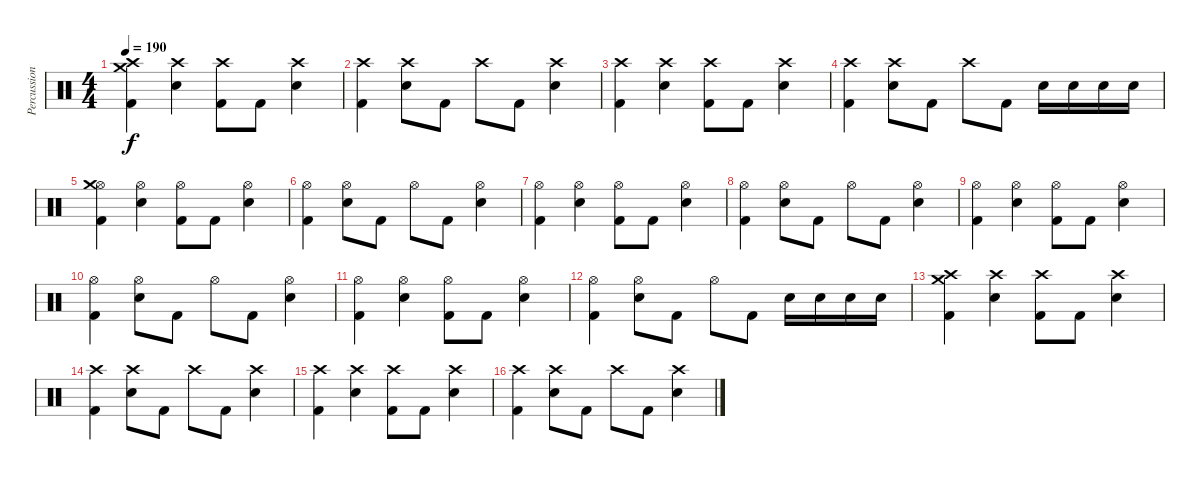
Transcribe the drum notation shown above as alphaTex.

\track ("Percussioni" "Percussion") {instrument percussion}
\staff {score}
\articulation defaults
\ts (4 4)
\tempo 190
\clef neutral
\ks c
("Crash high (hit)" "Kick (hit) 2" "Crash medium (hit)").4{dy f} ("Crash high (hit)" "Snare (hit) 2").4 ("Crash high (hit)" "Kick (hit) 2").8 "Kick (hit) 2".8 ("Crash high (hit)" "Snare (hit) 2").4 |
("Crash high (hit)" "Kick (hit) 2").4 ("Crash high (hit)" "Snare (hit) 2").8 "Kick (hit) 2".8 "Crash high (hit)".8 "Kick (hit) 2".8 ("Crash high (hit)" "Snare (hit) 2").4 |
("Crash high (hit)" "Kick (hit) 2").4 ("Crash high (hit)" "Snare (hit) 2").4 ("Crash high (hit)" "Kick (hit) 2").8 "Kick (hit) 2".8 ("Crash high (hit)" "Snare (hit) 2").4 |
("Crash high (hit)" "Kick (hit) 2").4 ("Crash high (hit)" "Snare (hit) 2").8 "Kick (hit) 2".8 "Crash high (hit)".8 "Kick (hit) 2".8 "Snare (hit) 2".16 "Snare (hit) 2".16 "Snare (hit) 2".16 "Snare (hit) 2".16 |
("Hi-Hat (open)" "Kick (hit) 2" "Crash medium (hit)").4 ("Hi-Hat (open)" "Snare (hit) 2").4 ("Hi-Hat (open)" "Kick (hit) 2").8 "Kick (hit) 2".8 ("Hi-Hat (open)" "Snare (hit) 2").4 |
("Hi-Hat (open)" "Kick (hit) 2").4 ("Hi-Hat (open)" "Snare (hit) 2").8 "Kick (hit) 2".8 "Hi-Hat (open)".8 "Kick (hit) 2".8 ("Hi-Hat (open)" "Snare (hit) 2").4 |
("Hi-Hat (open)" "Kick (hit) 2").4 ("Hi-Hat (open)" "Snare (hit) 2").4 ("Hi-Hat (open)" "Kick (hit) 2").8 "Kick (hit) 2".8 ("Hi-Hat (open)" "Snare (hit) 2").4 |
("Hi-Hat (open)" "Kick (hit) 2").4 ("Hi-Hat (open)" "Snare (hit) 2").8 "Kick (hit) 2".8 "Hi-Hat (open)".8 "Kick (hit) 2".8 ("Hi-Hat (open)" "Snare (hit) 2").4 |
("Hi-Hat (open)" "Kick (hit) 2").4 ("Hi-Hat (open)" "Snare (hit) 2").4 ("Hi-Hat (open)" "Kick (hit) 2").8 "Kick (hit) 2".8 ("Hi-Hat (open)" "Snare (hit) 2").4 |
("Hi-Hat (open)" "Kick (hit) 2").4 ("Hi-Hat (open)" "Snare (hit) 2").8 "Kick (hit) 2".8 "Hi-Hat (open)".8 "Kick (hit) 2".8 ("Hi-Hat (open)" "Snare (hit) 2").4 |
("Hi-Hat (open)" "Kick (hit) 2").4 ("Hi-Hat (open)" "Snare (hit) 2").4 ("Hi-Hat (open)" "Kick (hit) 2").8 "Kick (hit) 2".8 ("Hi-Hat (open)" "Snare (hit) 2").4 |
("Hi-Hat (open)" "Kick (hit) 2").4 ("Hi-Hat (open)" "Snare (hit) 2").8 "Kick (hit) 2".8 "Hi-Hat (open)".8 "Kick (hit) 2".8 "Snare (hit) 2".16 "Snare (hit) 2".16 "Snare (hit) 2".16 "Snare (hit) 2".16 |
("Crash high (hit)" "Kick (hit) 2" "Crash medium (hit)").4 ("Crash high (hit)" "Snare (hit) 2").4 ("Crash high (hit)" "Kick (hit) 2").8 "Kick (hit) 2".8 ("Crash high (hit)" "Snare (hit) 2").4 |
("Crash high (hit)" "Kick (hit) 2").4 ("Crash high (hit)" "Snare (hit) 2").8 "Kick (hit) 2".8 "Crash high (hit)".8 "Kick (hit) 2".8 ("Crash high (hit)" "Snare (hit) 2").4 |
("Crash high (hit)" "Kick (hit) 2").4 ("Crash high (hit)" "Snare (hit) 2").4 ("Crash high (hit)" "Kick (hit) 2").8 "Kick (hit) 2".8 ("Crash high (hit)" "Snare (hit) 2").4 |
("Crash high (hit)" "Kick (hit) 2").4 ("Crash high (hit)" "Snare (hit) 2").8 "Kick (hit) 2".8 "Crash high (hit)".8 "Kick (hit) 2".8 ("Crash high (hit)" "Snare (hit) 2").4
